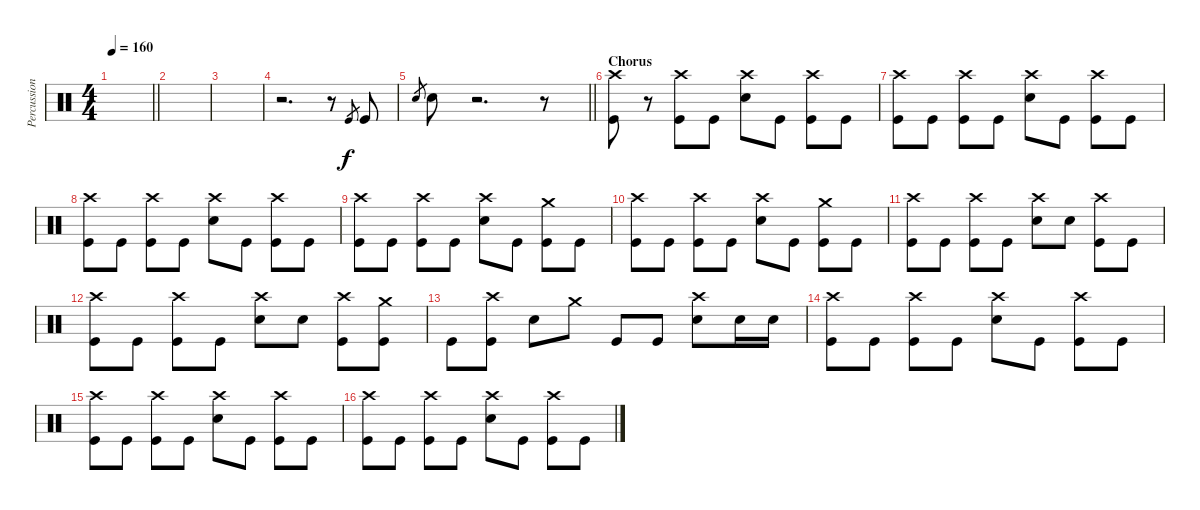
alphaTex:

\track ("Percussions" "Percussion") {instrument percussion}
\staff {score}
\articulation defaults
\ts (4 4)
\tempo 160
\clef neutral
\barLineRight lightlight
\ks c
|
|
|
r.2{d} r.8 "Kick (hit)".8{gr} "Kick (hit)".8 |
\barLineRight lightlight "Snare (hit) 2".8{gr} "Snare (hit) 2".8
r.2{d} r.8 |
\section ("" "Chorus")
("Kick (hit)" "Crash high (hit)").8 r.8 ("Kick (hit)" "Crash high (hit)").8 "Kick (hit)".8 ("Snare (hit) 2" "Crash high (hit)").8 "Kick (hit)".8 ("Kick (hit)" "Crash high (hit)").8 "Kick (hit)".8 |
("Kick (hit)" "Crash high (hit)").8 "Kick (hit)".8 ("Kick (hit)" "Crash high (hit)").8 "Kick (hit)".8 ("Snare (hit) 2" "Crash high (hit)").8 "Kick (hit)".8 ("Kick (hit)" "Crash high (hit)").8 "Kick (hit)".8 |
("Kick (hit)" "Crash high (hit)").8 "Kick (hit)".8 ("Kick (hit)" "Crash high (hit)").8 "Kick (hit)".8 ("Snare (hit) 2" "Crash high (hit)").8 "Kick (hit)".8 ("Kick (hit)" "Crash high (hit)").8 "Kick (hit)".8 |
("Kick (hit)" "Crash high (hit)").8 "Kick (hit)".8 ("Kick (hit)" "Crash high (hit)").8 "Kick (hit)".8 ("Snare (hit) 2" "Crash high (hit)").8 "Kick (hit)".8 ("Kick (hit)" "Crash medium (hit)").8 "Kick (hit)".8 |
("Kick (hit)" "Crash high (hit)").8 "Kick (hit)".8 ("Kick (hit)" "Crash high (hit)").8 "Kick (hit)".8 ("Snare (hit) 2" "Crash high (hit)").8 "Kick (hit)".8 ("Kick (hit)" "Crash medium (hit)").8 "Kick (hit)".8 |
("Kick (hit)" "Crash high (hit)").8 "Kick (hit)".8 ("Kick (hit)" "Crash high (hit)").8 "Kick (hit)".8 ("Snare (hit) 2" "Crash high (hit)").8 "Snare (hit) 2".8 ("Kick (hit)" "Crash high (hit)").8 "Kick (hit)".8 |
("Kick (hit)" "Crash high (hit)").8 "Kick (hit)".8 ("Kick (hit)" "Crash high (hit)").8 "Kick (hit)".8 ("Snare (hit) 2" "Crash high (hit)").8 "Snare (hit) 2".8 ("Kick (hit)" "Crash high (hit)").8 ("Kick (hit)" "Crash medium (hit)").8 |
"Kick (hit)".8 ("Kick (hit)" "Crash high (hit)").8 "Snare (hit) 2".8 "Crash medium (hit)".8 "Kick (hit)".8 "Kick (hit)".8 ("Snare (hit) 2" "Crash high (hit)").8 "Snare (hit) 2".16 "Snare (hit) 2".16 |
("Kick (hit)" "Crash high (hit)").8 "Kick (hit)".8 ("Kick (hit)" "Crash high (hit)").8 "Kick (hit)".8 ("Snare (hit) 2" "Crash high (hit)").8 "Kick (hit)".8 ("Kick (hit)" "Crash high (hit)").8 "Kick (hit)".8 |
("Kick (hit)" "Crash high (hit)").8 "Kick (hit)".8 ("Kick (hit)" "Crash high (hit)").8 "Kick (hit)".8 ("Snare (hit) 2" "Crash high (hit)").8 "Kick (hit)".8 ("Kick (hit)" "Crash high (hit)").8 "Kick (hit)".8 |
("Kick (hit)" "Crash high (hit)").8 "Kick (hit)".8 ("Kick (hit)" "Crash high (hit)").8 "Kick (hit)".8 ("Snare (hit) 2" "Crash high (hit)").8 "Kick (hit)".8 ("Kick (hit)" "Crash high (hit)").8 "Kick (hit)".8
